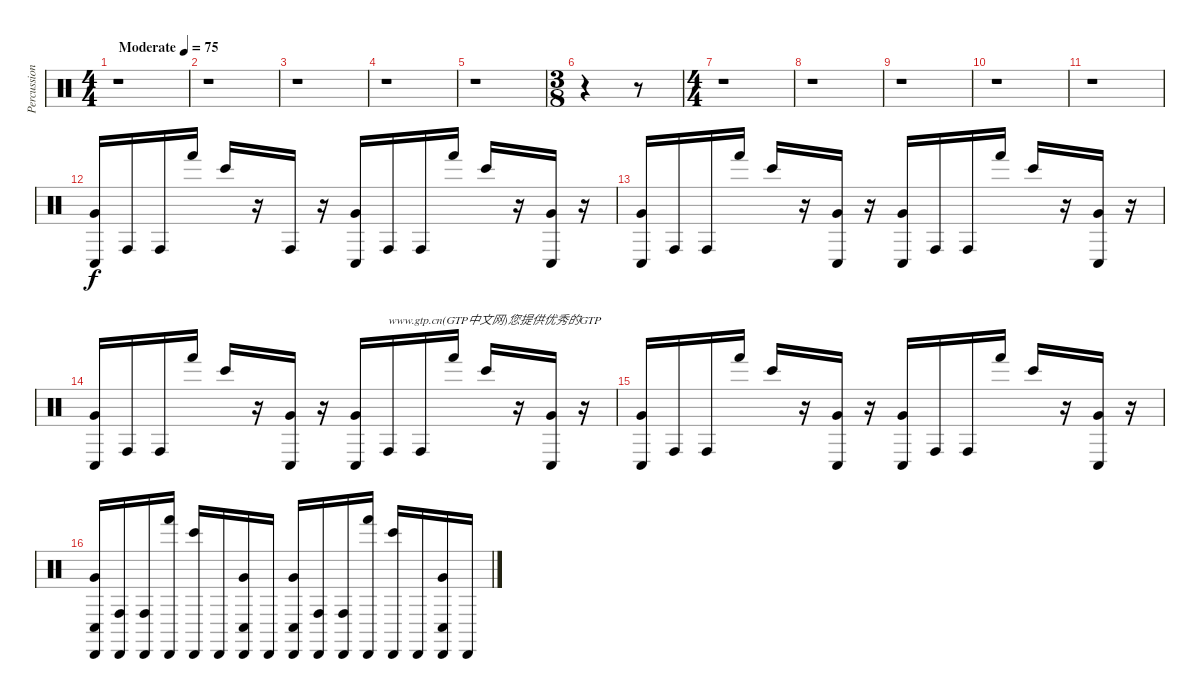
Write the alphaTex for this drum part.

\track ("Percussions" "Percussion") {instrument percussion}
\staff {score}
\articulation defaults
\ts (4 4)
\tempo (75 "Moderate")
\clef neutral
\ks c
r.1{dy f} |
r.1 |
r.1 |
r.1 |
r.1 |
\ts (3 8)
r.4 r.8 |
\ts (4 4)
r.1 |
r.1 |
r.1 |
r.1 |
r.1 |
("Conga low (hit)" "Very Low Tom (hit)").16 "Conga high (hit)".16 "Conga high (hit)".16 "Hand (hit)".16 "Bongo High (hit)".16 r.16 "Conga high (hit)".16 r.16 ("Conga low (hit)" "Very Low Tom (hit)").16 "Conga high (hit)".16 "Conga high (hit)".16 "Hand (hit)".16 "Bongo High (hit)".16 r.16 ("Conga low (hit)" "Very Low Tom (hit)").16 r.16 |
("Conga low (hit)" "Very Low Tom (hit)").16 "Conga high (hit)".16 "Conga high (hit)".16 "Hand (hit)".16 "Bongo High (hit)".16 r.16 ("Conga low (hit)" "Very Low Tom (hit)").16 r.16 ("Conga low (hit)" "Very Low Tom (hit)").16 "Conga high (hit)".16 "Conga high (hit)".16 "Hand (hit)".16 "Bongo High (hit)".16 r.16 ("Conga low (hit)" "Very Low Tom (hit)").16 r.16 |
("Conga low (hit)" "Very Low Tom (hit)").16 "Conga high (hit)".16 "Conga high (hit)".16 "Hand (hit)".16 "Bongo High (hit)".16 r.16 ("Conga low (hit)" "Very Low Tom (hit)").16 r.16 ("Conga low (hit)" "Very Low Tom (hit)").16 "Conga high (hit)".16{txt "www.gtp.cn(GTP中文网)您提供优秀的GTP"} "Conga high (hit)".16 "Hand (hit)".16 "Bongo High (hit)".16 r.16 ("Conga low (hit)" "Very Low Tom (hit)").16 r.16 |
("Conga low (hit)" "Very Low Tom (hit)").16 "Conga high (hit)".16 "Conga high (hit)".16 "Hand (hit)".16 "Bongo High (hit)".16 r.16 ("Conga low (hit)" "Very Low Tom (hit)").16 r.16 ("Conga low (hit)" "Very Low Tom (hit)").16 "Conga high (hit)".16 "Conga high (hit)".16 "Hand (hit)".16 "Bongo High (hit)".16 r.16 ("Conga low (hit)" "Very Low Tom (hit)").16 r.16 |
("Conga low (hit)" "Very Low Tom (hit)" "Cabasa (hit)").16 ("Conga high (hit)" "Cabasa (hit)").16 ("Conga high (hit)" "Cabasa (hit)").16 ("Hand (hit)" "Cabasa (hit)").16 ("Bongo High (hit)" "Cabasa (hit)").16 "Cabasa (hit)".16 ("Conga low (hit)" "Very Low Tom (hit)" "Cabasa (hit)").16 "Cabasa (hit)".16 ("Conga low (hit)" "Very Low Tom (hit)" "Cabasa (hit)").16 ("Conga high (hit)" "Cabasa (hit)").16 ("Conga high (hit)" "Cabasa (hit)").16 ("Hand (hit)" "Cabasa (hit)").16 ("Bongo High (hit)" "Cabasa (hit)").16 "Cabasa (hit)".16 ("Conga low (hit)" "Very Low Tom (hit)" "Cabasa (hit)").16 "Cabasa (hit)".16
